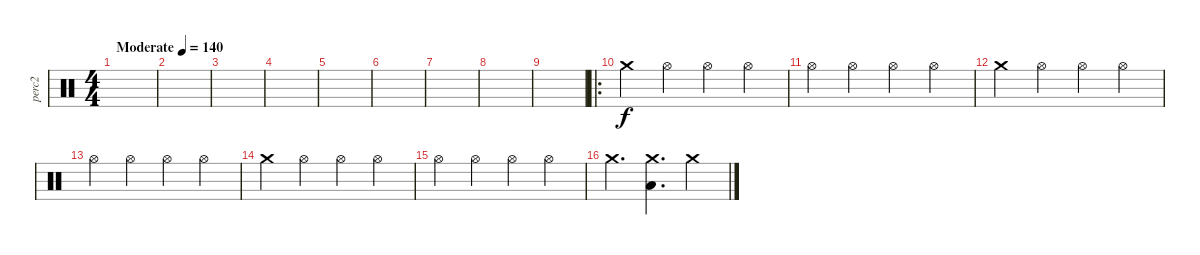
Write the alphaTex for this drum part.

\track ("perc2" "perc2") {instrument percussion}
\staff {score}
\articulation defaults
\ts (4 4)
\tempo (140 "Moderate")
\clef neutral
\ks c
|
|
|
|
|
|
|
|
|
\ro "Crash medium (hit)".4 "Hi-Hat (open)".4 "Hi-Hat (open)".4 "Hi-Hat (open)".4
|
"Hi-Hat (open)".4 "Hi-Hat (open)".4 "Hi-Hat (open)".4 "Hi-Hat (open)".4 |
"Crash medium (hit)".4 "Hi-Hat (open)".4 "Hi-Hat (open)".4 "Hi-Hat (open)".4 |
"Hi-Hat (open)".4 "Hi-Hat (open)".4 "Hi-Hat (open)".4 "Hi-Hat (open)".4 |
"Crash medium (hit)".4 "Hi-Hat (open)".4 "Hi-Hat (open)".4 "Hi-Hat (open)".4 |
"Hi-Hat (open)".4 "Hi-Hat (open)".4 "Hi-Hat (open)".4 "Hi-Hat (open)".4 |
"Crash medium (hit)".4{d} ("Crash medium (hit)" "Low Tom (hit)").4{d} "Crash medium (hit)".4
